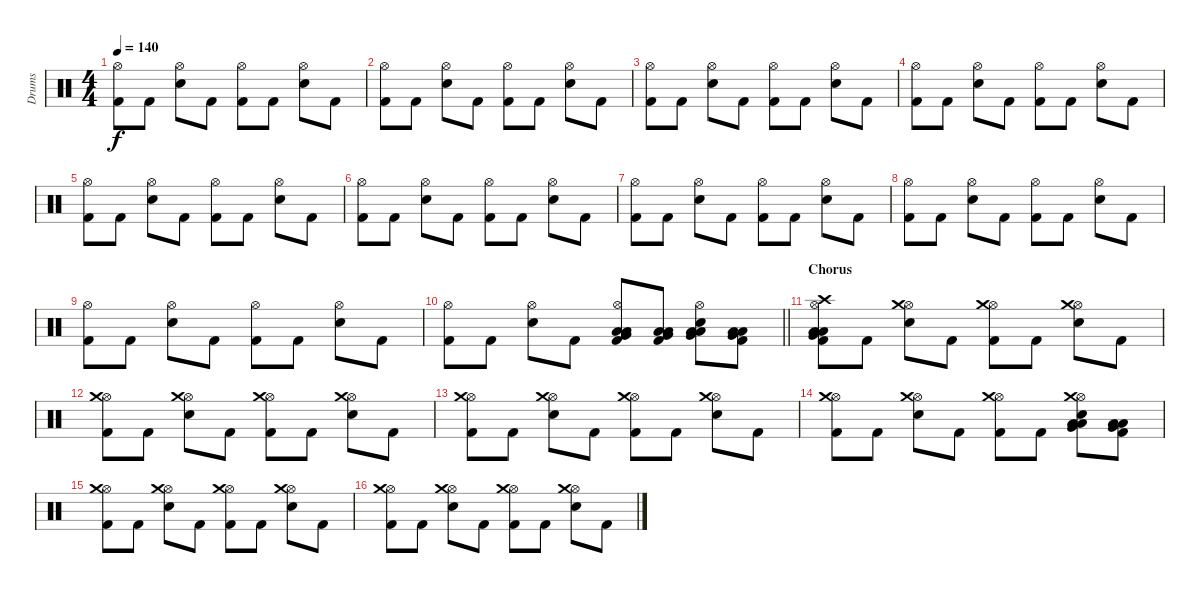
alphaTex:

\track ("Drums" "Drums") {instrument percussion}
\staff {score}
\articulation defaults
\ts (4 4)
\tempo 140
\clef neutral
\ks c
("Kick (hit) 2" "Hi-Hat (open)").8{dy f} "Kick (hit) 2".8 ("Electric Snare (hit)" "Hi-Hat (open)").8 "Kick (hit) 2".8 ("Kick (hit) 2" "Hi-Hat (open)").8 "Kick (hit) 2".8 ("Electric Snare (hit)" "Hi-Hat (open)").8 "Kick (hit) 2".8 |
("Kick (hit) 2" "Hi-Hat (open)").8 "Kick (hit) 2".8 ("Electric Snare (hit)" "Hi-Hat (open)").8 "Kick (hit) 2".8 ("Kick (hit) 2" "Hi-Hat (open)").8 "Kick (hit) 2".8 ("Electric Snare (hit)" "Hi-Hat (open)").8 "Kick (hit) 2".8 |
("Kick (hit) 2" "Hi-Hat (open)").8 "Kick (hit) 2".8 ("Electric Snare (hit)" "Hi-Hat (open)").8 "Kick (hit) 2".8 ("Kick (hit) 2" "Hi-Hat (open)").8 "Kick (hit) 2".8 ("Electric Snare (hit)" "Hi-Hat (open)").8 "Kick (hit) 2".8 |
("Kick (hit) 2" "Hi-Hat (open)").8 "Kick (hit) 2".8 ("Electric Snare (hit)" "Hi-Hat (open)").8 "Kick (hit) 2".8 ("Kick (hit) 2" "Hi-Hat (open)").8 "Kick (hit) 2".8 ("Electric Snare (hit)" "Hi-Hat (open)").8 "Kick (hit) 2".8 |
("Kick (hit) 2" "Hi-Hat (open)").8 "Kick (hit) 2".8 ("Electric Snare (hit)" "Hi-Hat (open)").8 "Kick (hit) 2".8 ("Kick (hit) 2" "Hi-Hat (open)").8 "Kick (hit) 2".8 ("Electric Snare (hit)" "Hi-Hat (open)").8 "Kick (hit) 2".8 |
("Kick (hit) 2" "Hi-Hat (open)").8 "Kick (hit) 2".8 ("Electric Snare (hit)" "Hi-Hat (open)").8 "Kick (hit) 2".8 ("Kick (hit) 2" "Hi-Hat (open)").8 "Kick (hit) 2".8 ("Electric Snare (hit)" "Hi-Hat (open)").8 "Kick (hit) 2".8 |
("Kick (hit) 2" "Hi-Hat (open)").8 "Kick (hit) 2".8 ("Electric Snare (hit)" "Hi-Hat (open)").8 "Kick (hit) 2".8 ("Kick (hit) 2" "Hi-Hat (open)").8 "Kick (hit) 2".8 ("Electric Snare (hit)" "Hi-Hat (open)").8 "Kick (hit) 2".8 |
("Kick (hit) 2" "Hi-Hat (open)").8 "Kick (hit) 2".8 ("Electric Snare (hit)" "Hi-Hat (open)").8 "Kick (hit) 2".8 ("Kick (hit) 2" "Hi-Hat (open)").8 "Kick (hit) 2".8 ("Electric Snare (hit)" "Hi-Hat (open)").8 "Kick (hit) 2".8 |
("Kick (hit) 2" "Hi-Hat (open)").8 "Kick (hit) 2".8 ("Electric Snare (hit)" "Hi-Hat (open)").8 "Kick (hit) 2".8 ("Kick (hit) 2" "Hi-Hat (open)").8 "Kick (hit) 2".8 ("Electric Snare (hit)" "Hi-Hat (open)").8 "Kick (hit) 2".8 |
\barLineRight lightlight
("Kick (hit) 2" "Hi-Hat (open)").8 "Kick (hit) 2".8 ("Electric Snare (hit)" "Hi-Hat (open)").8 "Kick (hit) 2".8 ("Kick (hit) 2" "Hi-Hat (open)" "Low Floor Tom (hit)" "Very Low Tom (hit)" "Low Tom (hit)").8 ("Kick (hit) 2" "Low Floor Tom (hit)" "Very Low Tom (hit)" "Low Tom (hit)").8 ("Electric Snare (hit)" "Hi-Hat (open)" "Low Floor Tom (hit)" "Very Low Tom (hit)" "Low Tom (hit)").8 ("Kick (hit) 2" "Low Floor Tom (hit)" "Very Low Tom (hit)" "Low Tom (hit)").8 |
\section ("" "Chorus")
("Kick (hit) 2" "Hi-Hat (open)" "Low Floor Tom (hit)" "Very Low Tom (hit)" "Low Tom (hit)" "Crash high (hit)").8 "Kick (hit) 2".8 ("Electric Snare (hit)" "Hi-Hat (open)" "Crash medium (hit)").8 "Kick (hit) 2".8 ("Kick (hit) 2" "Hi-Hat (open)" "Crash medium (hit)").8 "Kick (hit) 2".8 ("Electric Snare (hit)" "Hi-Hat (open)" "Crash medium (hit)").8 "Kick (hit) 2".8 |
("Kick (hit) 2" "Hi-Hat (open)" "Crash medium (hit)").8 "Kick (hit) 2".8 ("Electric Snare (hit)" "Hi-Hat (open)" "Crash medium (hit)").8 "Kick (hit) 2".8 ("Kick (hit) 2" "Hi-Hat (open)" "Crash medium (hit)").8 "Kick (hit) 2".8 ("Electric Snare (hit)" "Hi-Hat (open)" "Crash medium (hit)").8 "Kick (hit) 2".8 |
("Kick (hit) 2" "Hi-Hat (open)" "Crash medium (hit)").8 "Kick (hit) 2".8 ("Electric Snare (hit)" "Hi-Hat (open)" "Crash medium (hit)").8 "Kick (hit) 2".8 ("Kick (hit) 2" "Hi-Hat (open)" "Crash medium (hit)").8 "Kick (hit) 2".8 ("Electric Snare (hit)" "Hi-Hat (open)" "Crash medium (hit)").8 "Kick (hit) 2".8 |
("Kick (hit) 2" "Hi-Hat (open)" "Crash medium (hit)").8 "Kick (hit) 2".8 ("Electric Snare (hit)" "Hi-Hat (open)" "Crash medium (hit)").8 "Kick (hit) 2".8 ("Kick (hit) 2" "Hi-Hat (open)" "Crash medium (hit)").8 "Kick (hit) 2".8 ("Electric Snare (hit)" "Hi-Hat (open)" "Crash medium (hit)" "Low Floor Tom (hit)" "Very Low Tom (hit)" "Low Tom (hit)").8 ("Kick (hit) 2" "Low Floor Tom (hit)" "Very Low Tom (hit)" "Low Tom (hit)").8 |
("Kick (hit) 2" "Hi-Hat (open)" "Crash medium (hit)").8 "Kick (hit) 2".8 ("Electric Snare (hit)" "Hi-Hat (open)" "Crash medium (hit)").8 "Kick (hit) 2".8 ("Kick (hit) 2" "Hi-Hat (open)" "Crash medium (hit)").8 "Kick (hit) 2".8 ("Electric Snare (hit)" "Hi-Hat (open)" "Crash medium (hit)").8 "Kick (hit) 2".8 |
("Kick (hit) 2" "Hi-Hat (open)" "Crash medium (hit)").8 "Kick (hit) 2".8 ("Electric Snare (hit)" "Hi-Hat (open)" "Crash medium (hit)").8 "Kick (hit) 2".8 ("Kick (hit) 2" "Hi-Hat (open)" "Crash medium (hit)").8 "Kick (hit) 2".8 ("Electric Snare (hit)" "Hi-Hat (open)" "Crash medium (hit)").8 "Kick (hit) 2".8
